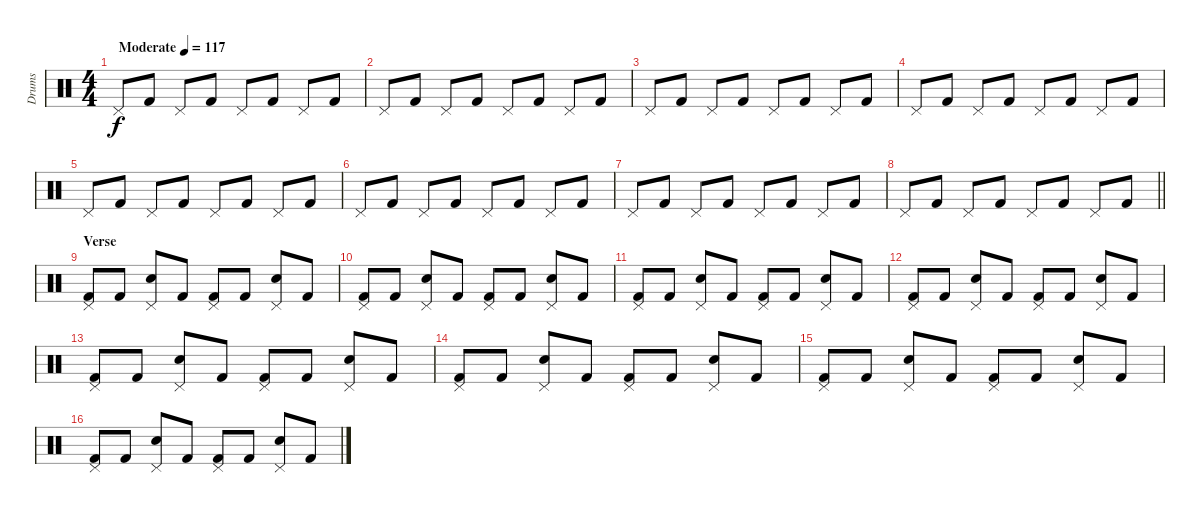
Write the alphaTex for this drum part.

\track ("Drums" "Drums") {instrument percussion}
\staff {score}
\articulation defaults
\ts (4 4)
\tempo (117 "Moderate")
\clef neutral
\ks c "Pedal Hi-Hat (hit)".8{dy f} "Kick (hit) 2".8 "Pedal Hi-Hat (hit)".8 "Kick (hit) 2".8 "Pedal Hi-Hat (hit)".8 "Kick (hit) 2".8 "Pedal Hi-Hat (hit)".8 "Kick (hit) 2".8
|
"Pedal Hi-Hat (hit)".8 "Kick (hit) 2".8 "Pedal Hi-Hat (hit)".8 "Kick (hit) 2".8 "Pedal Hi-Hat (hit)".8 "Kick (hit) 2".8 "Pedal Hi-Hat (hit)".8 "Kick (hit) 2".8 |
"Pedal Hi-Hat (hit)".8 "Kick (hit) 2".8 "Pedal Hi-Hat (hit)".8 "Kick (hit) 2".8 "Pedal Hi-Hat (hit)".8 "Kick (hit) 2".8 "Pedal Hi-Hat (hit)".8 "Kick (hit) 2".8 |
"Pedal Hi-Hat (hit)".8 "Kick (hit) 2".8 "Pedal Hi-Hat (hit)".8 "Kick (hit) 2".8 "Pedal Hi-Hat (hit)".8 "Kick (hit) 2".8 "Pedal Hi-Hat (hit)".8 "Kick (hit) 2".8 |
"Pedal Hi-Hat (hit)".8 "Kick (hit) 2".8 "Pedal Hi-Hat (hit)".8 "Kick (hit) 2".8 "Pedal Hi-Hat (hit)".8 "Kick (hit) 2".8 "Pedal Hi-Hat (hit)".8 "Kick (hit) 2".8 |
"Pedal Hi-Hat (hit)".8 "Kick (hit) 2".8 "Pedal Hi-Hat (hit)".8 "Kick (hit) 2".8 "Pedal Hi-Hat (hit)".8 "Kick (hit) 2".8 "Pedal Hi-Hat (hit)".8 "Kick (hit) 2".8 |
"Pedal Hi-Hat (hit)".8 "Kick (hit) 2".8 "Pedal Hi-Hat (hit)".8 "Kick (hit) 2".8 "Pedal Hi-Hat (hit)".8 "Kick (hit) 2".8 "Pedal Hi-Hat (hit)".8 "Kick (hit) 2".8 |
\barLineRight lightlight "Pedal Hi-Hat (hit)".8 "Kick (hit) 2".8 "Pedal Hi-Hat (hit)".8 "Kick (hit) 2".8 "Pedal Hi-Hat (hit)".8 "Kick (hit) 2".8 "Pedal Hi-Hat (hit)".8 "Kick (hit) 2".8
|
\section ("" "Verse")
("Kick (hit) 2" "Pedal Hi-Hat (hit)").8 "Kick (hit) 2".8 ("Snare (hit) 2" "Pedal Hi-Hat (hit)").8 "Kick (hit) 2".8 ("Kick (hit) 2" "Pedal Hi-Hat (hit)").8 "Kick (hit) 2".8 ("Snare (hit) 2" "Pedal Hi-Hat (hit)").8 "Kick (hit) 2".8 |
("Kick (hit) 2" "Pedal Hi-Hat (hit)").8 "Kick (hit) 2".8 ("Snare (hit) 2" "Pedal Hi-Hat (hit)").8 "Kick (hit) 2".8 ("Kick (hit) 2" "Pedal Hi-Hat (hit)").8 "Kick (hit) 2".8 ("Snare (hit) 2" "Pedal Hi-Hat (hit)").8 "Kick (hit) 2".8 |
("Kick (hit) 2" "Pedal Hi-Hat (hit)").8 "Kick (hit) 2".8 ("Snare (hit) 2" "Pedal Hi-Hat (hit)").8 "Kick (hit) 2".8 ("Kick (hit) 2" "Pedal Hi-Hat (hit)").8 "Kick (hit) 2".8 ("Snare (hit) 2" "Pedal Hi-Hat (hit)").8 "Kick (hit) 2".8 |
("Kick (hit) 2" "Pedal Hi-Hat (hit)").8 "Kick (hit) 2".8 ("Snare (hit) 2" "Pedal Hi-Hat (hit)").8 "Kick (hit) 2".8 ("Kick (hit) 2" "Pedal Hi-Hat (hit)").8 "Kick (hit) 2".8 ("Snare (hit) 2" "Pedal Hi-Hat (hit)").8 "Kick (hit) 2".8 |
("Kick (hit) 2" "Pedal Hi-Hat (hit)").8 "Kick (hit) 2".8 ("Snare (hit) 2" "Pedal Hi-Hat (hit)").8 "Kick (hit) 2".8 ("Kick (hit) 2" "Pedal Hi-Hat (hit)").8 "Kick (hit) 2".8 ("Snare (hit) 2" "Pedal Hi-Hat (hit)").8 "Kick (hit) 2".8 |
("Kick (hit) 2" "Pedal Hi-Hat (hit)").8 "Kick (hit) 2".8 ("Snare (hit) 2" "Pedal Hi-Hat (hit)").8 "Kick (hit) 2".8 ("Kick (hit) 2" "Pedal Hi-Hat (hit)").8 "Kick (hit) 2".8 ("Snare (hit) 2" "Pedal Hi-Hat (hit)").8 "Kick (hit) 2".8 |
("Kick (hit) 2" "Pedal Hi-Hat (hit)").8 "Kick (hit) 2".8 ("Snare (hit) 2" "Pedal Hi-Hat (hit)").8 "Kick (hit) 2".8 ("Kick (hit) 2" "Pedal Hi-Hat (hit)").8 "Kick (hit) 2".8 ("Snare (hit) 2" "Pedal Hi-Hat (hit)").8 "Kick (hit) 2".8 |
("Kick (hit) 2" "Pedal Hi-Hat (hit)").8 "Kick (hit) 2".8 ("Snare (hit) 2" "Pedal Hi-Hat (hit)").8 "Kick (hit) 2".8 ("Kick (hit) 2" "Pedal Hi-Hat (hit)").8 "Kick (hit) 2".8 ("Snare (hit) 2" "Pedal Hi-Hat (hit)").8 "Kick (hit) 2".8
